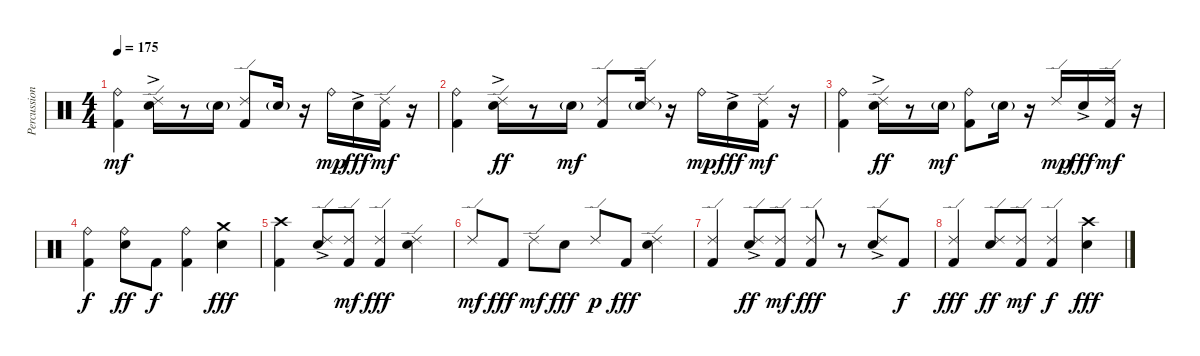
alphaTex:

\track ("Percussion" "Percussion") {instrument percussion}
\staff {score}
\articulation defaults
\ts (4 4)
\tempo 175
\clef neutral
\ks c
("Ride (bell)" "Kick (hit) 2").4{dy mf} ("Ride (edge) 2" "Electric Snare (hit)"{ac}).16 r.8 "Electric Snare (hit)"{g}.16 ("Ride (edge) 2" "Kick (hit) 2").8 "Electric Snare (hit)"{g}.16 r.16 "Ride (bell)".16{dy mp} "Electric Snare (hit)"{ac}.16{dy fff} ("Ride (edge) 2" "Kick (hit) 2").16{dy mf} r.16 |
("Ride (bell)" "Kick (hit) 2").4 ("Ride (edge) 2" "Electric Snare (hit)"{ac}).16{dy ff} r.8 "Electric Snare (hit)"{g}.16{dy mf} ("Ride (edge) 2" "Kick (hit) 2").8 ("Ride (edge) 2" "Electric Snare (hit)"{g}).16 r.16 "Ride (bell)".16{dy mp} "Electric Snare (hit)"{ac}.16{dy fff} ("Ride (edge) 2" "Kick (hit) 2").16{dy mf} r.16 |
("Ride (bell)" "Kick (hit) 2").4 ("Ride (edge) 2" "Electric Snare (hit)"{ac}).16{dy ff} r.8 "Electric Snare (hit)"{g}.16{dy mf} ("Ride (bell)" "Kick (hit) 2").8 "Electric Snare (hit)"{g}.16 r.16 "Ride (edge) 2".16{dy mp} "Electric Snare (hit)"{ac}.16{dy fff} ("Ride (edge) 2" "Kick (hit) 2").16{dy mf} r.16 |
("Ride (bell)" "Kick (hit) 2").4{dy f} ("Ride (bell)" "Electric Snare (hit)").8{dy ff} "Kick (hit) 2".8{dy f} ("Ride (bell)" "Kick (hit) 2").4 ("Crash medium (hit)" "Electric Snare (hit)").4{dy fff} |
("Crash high (hit)" "Kick (hit) 2").4 ("Ride (edge) 2" "Electric Snare (hit)"{ac}).8 ("Ride (edge) 2" "Kick (hit) 2").8{dy mf} ("Ride (edge) 2" "Kick (hit) 2").4{dy fff} ("Ride (edge) 2" "Electric Snare (hit)").4 |
"Ride (edge) 2".8{dy mf} "Kick (hit) 2".8{dy fff} "Ride (edge) 2".8{dy mf} "Electric Snare (hit)".8{dy fff} "Ride (edge) 2".8{dy p} "Kick (hit) 2".8{dy fff} ("Ride (edge) 2" "Electric Snare (hit)").4 |
("Ride (edge) 2" "Kick (hit) 2").4 ("Ride (edge) 2" "Electric Snare (hit)"{ac}).8{dy ff} ("Ride (edge) 2" "Kick (hit) 2").8{dy mf} ("Ride (edge) 2" "Kick (hit) 2").8{dy fff} r.8 ("Ride (edge) 2" "Electric Snare (hit)"{ac}).8 "Kick (hit) 2".8{dy f} |
("Ride (edge) 2" "Kick (hit) 2").4{dy fff} ("Ride (edge) 2" "Electric Snare (hit)").8{dy ff} ("Ride (edge) 2" "Kick (hit) 2").8{dy mf} ("Ride (edge) 2" "Kick (hit) 2").4{dy f} ("Crash high (hit)" "Electric Snare (hit)").4{dy fff}
